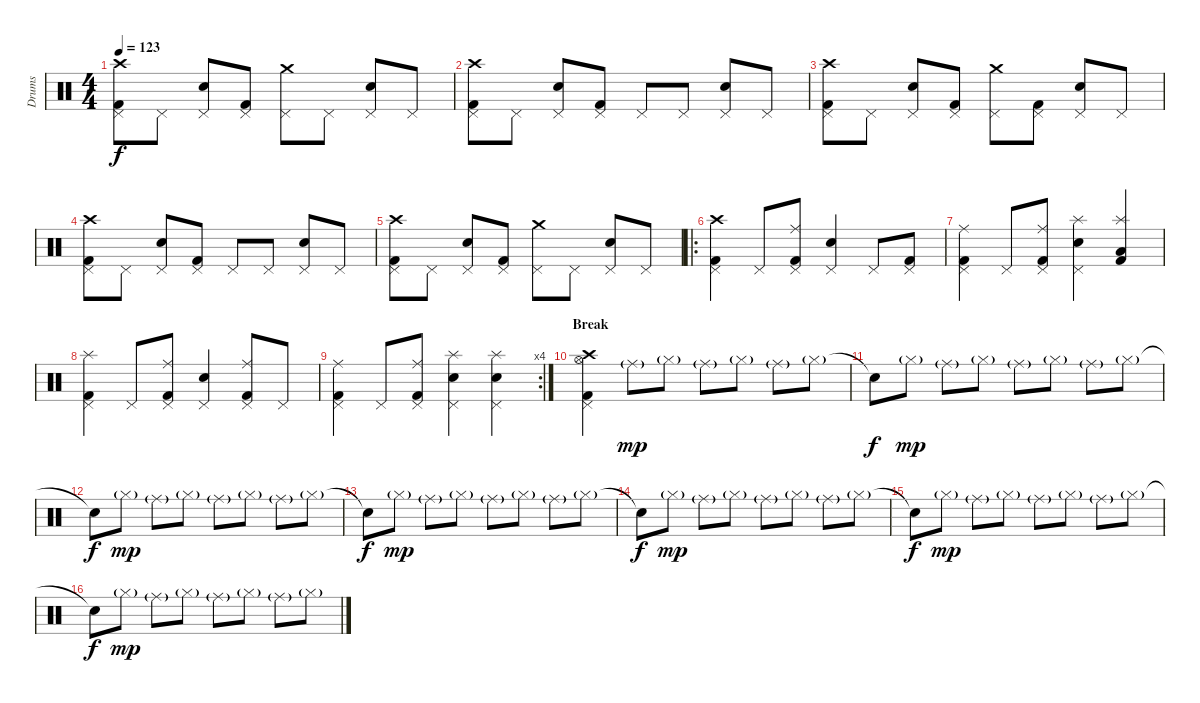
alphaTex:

\track ("Drums" "Drums") {instrument percussion}
\staff {score}
\articulation defaults
\ts (4 4)
\tempo 123
\clef neutral
\ks c
("Kick (hit) 2" "Pedal Hi-Hat (hit)" "Crash high (hit)").8{dy f} "Pedal Hi-Hat (hit)".8 ("Snare (hit) 2" "Pedal Hi-Hat (hit)").8 ("Kick (hit) 2" "Pedal Hi-Hat (hit)").8 ("Pedal Hi-Hat (hit)" "Crash medium (hit)").8 "Pedal Hi-Hat (hit)".8 ("Snare (hit) 2" "Pedal Hi-Hat (hit)").8 "Pedal Hi-Hat (hit)".8 |
("Kick (hit) 2" "Pedal Hi-Hat (hit)" "Crash high (hit)").8 "Pedal Hi-Hat (hit)".8 ("Snare (hit) 2" "Pedal Hi-Hat (hit)").8 ("Kick (hit) 2" "Pedal Hi-Hat (hit)").8 "Pedal Hi-Hat (hit)".8 "Pedal Hi-Hat (hit)".8 ("Snare (hit) 2" "Pedal Hi-Hat (hit)").8 "Pedal Hi-Hat (hit)".8 |
("Kick (hit) 2" "Pedal Hi-Hat (hit)" "Crash high (hit)").8 "Pedal Hi-Hat (hit)".8 ("Snare (hit) 2" "Pedal Hi-Hat (hit)").8 ("Kick (hit) 2" "Pedal Hi-Hat (hit)").8 ("Pedal Hi-Hat (hit)" "Crash medium (hit)").8 ("Kick (hit) 2" "Pedal Hi-Hat (hit)").8 ("Snare (hit) 2" "Pedal Hi-Hat (hit)").8 "Pedal Hi-Hat (hit)".8 |
("Kick (hit) 2" "Pedal Hi-Hat (hit)" "Crash high (hit)").8 "Pedal Hi-Hat (hit)".8 ("Snare (hit) 2" "Pedal Hi-Hat (hit)").8 ("Kick (hit) 2" "Pedal Hi-Hat (hit)").8 "Pedal Hi-Hat (hit)".8 "Pedal Hi-Hat (hit)".8 ("Snare (hit) 2" "Pedal Hi-Hat (hit)").8 "Pedal Hi-Hat (hit)".8 |
("Kick (hit) 2" "Pedal Hi-Hat (hit)" "Crash high (hit)").8 "Pedal Hi-Hat (hit)".8 ("Snare (hit) 2" "Pedal Hi-Hat (hit)").8 ("Kick (hit) 2" "Pedal Hi-Hat (hit)").8 ("Pedal Hi-Hat (hit)" "Crash medium (hit)").8 "Pedal Hi-Hat (hit)".8 ("Snare (hit) 2" "Pedal Hi-Hat (hit)").8 "Pedal Hi-Hat (hit)".8 |
\ro
("Kick (hit) 2" "Pedal Hi-Hat (hit)" "Crash high (hit)").4 "Pedal Hi-Hat (hit)".8 ("Kick (hit) 2" "Pedal Hi-Hat (hit)" "Ride (middle)").8 ("Snare (hit) 2" "Pedal Hi-Hat (hit)").4 "Pedal Hi-Hat (hit)".8 ("Kick (hit) 2" "Pedal Hi-Hat (hit)").8 |
("Kick (hit) 2" "Pedal Hi-Hat (hit)" "Ride (middle)").4 "Pedal Hi-Hat (hit)".8 ("Kick (hit) 2" "Pedal Hi-Hat (hit)" "Ride (middle)").8 ("Snare (hit) 2" "Pedal Hi-Hat (hit)" "Splash (hit)").4 ("Kick (hit) 2" "Low Tom (hit)" "Splash (hit)").4 |
("Kick (hit) 2" "Pedal Hi-Hat (hit)" "Splash (hit)").4 "Pedal Hi-Hat (hit)".8 ("Kick (hit) 2" "Pedal Hi-Hat (hit)" "Ride (middle)").8 ("Snare (hit) 2" "Pedal Hi-Hat (hit)").4 ("Kick (hit) 2" "Pedal Hi-Hat (hit)" "Ride (middle)").8 "Pedal Hi-Hat (hit)".8 |
\rc 4
("Kick (hit) 2" "Pedal Hi-Hat (hit)" "Ride (middle)").4 "Pedal Hi-Hat (hit)".8 ("Kick (hit) 2" "Pedal Hi-Hat (hit)" "Ride (middle)").8 ("Snare (hit) 2" "Pedal Hi-Hat (hit)" "Splash (hit)").4 ("Snare (hit) 2" "Pedal Hi-Hat (hit)" "Splash (hit)").4 |
\section ("" "Break")
("Kick (hit) 2" "Pedal Hi-Hat (hit)" "Hi-Hat (open)" "Crash high (hit)").4 "Ride (middle)"{g}.8{dy mp} "Hi-Hat (closed)"{g}.8 "Ride (middle)"{g}.8 "Hi-Hat (closed)"{g}.8 "Ride (middle)"{g}.8 "Hi-Hat (closed)"{g}.8 |
"Snare (hit)"{t}.8{dy f} "Hi-Hat (closed)"{g}.8{dy mp} "Ride (middle)"{g}.8 "Hi-Hat (closed)"{g}.8 "Ride (middle)"{g}.8 "Hi-Hat (closed)"{g}.8 "Ride (middle)"{g}.8 "Hi-Hat (closed)"{g}.8 |
"Snare (hit)"{t}.8{dy f} "Hi-Hat (closed)"{g}.8{dy mp} "Ride (middle)"{g}.8 "Hi-Hat (closed)"{g}.8 "Ride (middle)"{g}.8 "Hi-Hat (closed)"{g}.8 "Ride (middle)"{g}.8 "Hi-Hat (closed)"{g}.8 |
"Snare (hit)"{t}.8{dy f} "Hi-Hat (closed)"{g}.8{dy mp} "Ride (middle)"{g}.8 "Hi-Hat (closed)"{g}.8 "Ride (middle)"{g}.8 "Hi-Hat (closed)"{g}.8 "Ride (middle)"{g}.8 "Hi-Hat (closed)"{g}.8 |
"Snare (hit)"{t}.8{dy f} "Hi-Hat (closed)"{g}.8{dy mp} "Ride (middle)"{g}.8 "Hi-Hat (closed)"{g}.8 "Ride (middle)"{g}.8 "Hi-Hat (closed)"{g}.8 "Ride (middle)"{g}.8 "Hi-Hat (closed)"{g}.8 |
"Snare (hit)"{t}.8{dy f} "Hi-Hat (closed)"{g}.8{dy mp} "Ride (middle)"{g}.8 "Hi-Hat (closed)"{g}.8 "Ride (middle)"{g}.8 "Hi-Hat (closed)"{g}.8 "Ride (middle)"{g}.8 "Hi-Hat (closed)"{g}.8 |
"Snare (hit)"{t}.8{dy f} "Hi-Hat (closed)"{g}.8{dy mp} "Ride (middle)"{g}.8 "Hi-Hat (closed)"{g}.8 "Ride (middle)"{g}.8 "Hi-Hat (closed)"{g}.8 "Ride (middle)"{g}.8 "Hi-Hat (closed)"{g}.8
